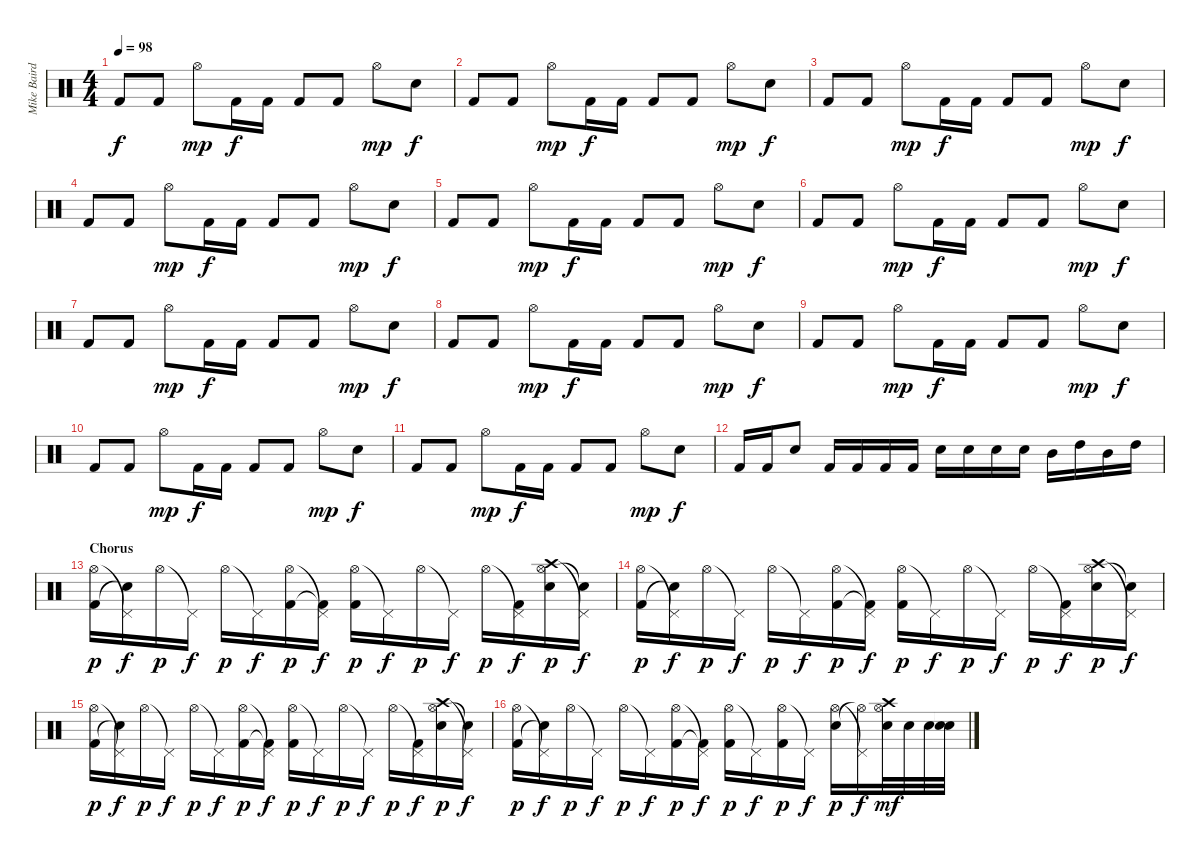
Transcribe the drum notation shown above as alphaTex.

\track ("Mike Baird [drums]" "Mike Baird") {instrument percussion}
\staff {score}
\articulation defaults
\ts (4 4)
\tempo 98
\clef neutral
\ks c "Kick (hit) 2".8{dy f} "Kick (hit) 2".8 "Hi-Hat (open)".8{dy mp} "Kick (hit) 2".16{dy f} "Kick (hit) 2".16 "Kick (hit) 2".8 "Kick (hit) 2".8 "Hi-Hat (open)".8{dy mp} "Electric Snare (hit)".8{dy f}
|
"Kick (hit) 2".8 "Kick (hit) 2".8 "Hi-Hat (open)".8{dy mp} "Kick (hit) 2".16{dy f} "Kick (hit) 2".16 "Kick (hit) 2".8 "Kick (hit) 2".8 "Hi-Hat (open)".8{dy mp} "Electric Snare (hit)".8{dy f} |
"Kick (hit) 2".8 "Kick (hit) 2".8 "Hi-Hat (open)".8{dy mp} "Kick (hit) 2".16{dy f} "Kick (hit) 2".16 "Kick (hit) 2".8 "Kick (hit) 2".8 "Hi-Hat (open)".8{dy mp} "Electric Snare (hit)".8{dy f} |
"Kick (hit) 2".8 "Kick (hit) 2".8 "Hi-Hat (open)".8{dy mp} "Kick (hit) 2".16{dy f} "Kick (hit) 2".16 "Kick (hit) 2".8 "Kick (hit) 2".8 "Hi-Hat (open)".8{dy mp} "Electric Snare (hit)".8{dy f} |
"Kick (hit) 2".8 "Kick (hit) 2".8 "Hi-Hat (open)".8{dy mp} "Kick (hit) 2".16{dy f} "Kick (hit) 2".16 "Kick (hit) 2".8 "Kick (hit) 2".8 "Hi-Hat (open)".8{dy mp} "Electric Snare (hit)".8{dy f} |
"Kick (hit) 2".8 "Kick (hit) 2".8 "Hi-Hat (open)".8{dy mp} "Kick (hit) 2".16{dy f} "Kick (hit) 2".16 "Kick (hit) 2".8 "Kick (hit) 2".8 "Hi-Hat (open)".8{dy mp} "Electric Snare (hit)".8{dy f} |
"Kick (hit) 2".8 "Kick (hit) 2".8 "Hi-Hat (open)".8{dy mp} "Kick (hit) 2".16{dy f} "Kick (hit) 2".16 "Kick (hit) 2".8 "Kick (hit) 2".8 "Hi-Hat (open)".8{dy mp} "Electric Snare (hit)".8{dy f} |
"Kick (hit) 2".8 "Kick (hit) 2".8 "Hi-Hat (open)".8{dy mp} "Kick (hit) 2".16{dy f} "Kick (hit) 2".16 "Kick (hit) 2".8 "Kick (hit) 2".8 "Hi-Hat (open)".8{dy mp} "Electric Snare (hit)".8{dy f} |
"Kick (hit) 2".8 "Kick (hit) 2".8 "Hi-Hat (open)".8{dy mp} "Kick (hit) 2".16{dy f} "Kick (hit) 2".16 "Kick (hit) 2".8 "Kick (hit) 2".8 "Hi-Hat (open)".8{dy mp} "Electric Snare (hit)".8{dy f} |
"Kick (hit) 2".8 "Kick (hit) 2".8 "Hi-Hat (open)".8{dy mp} "Kick (hit) 2".16{dy f} "Kick (hit) 2".16 "Kick (hit) 2".8 "Kick (hit) 2".8 "Hi-Hat (open)".8{dy mp} "Electric Snare (hit)".8{dy f} |
"Kick (hit) 2".8 "Kick (hit) 2".8 "Hi-Hat (open)".8{dy mp} "Kick (hit) 2".16{dy f} "Kick (hit) 2".16 "Kick (hit) 2".8 "Kick (hit) 2".8 "Hi-Hat (open)".8{dy mp} "Electric Snare (hit)".8{dy f} |
"Kick (hit) 2".16 "Kick (hit) 2".16 "Electric Snare (hit)".8 "Kick (hit) 2".16 "Kick (hit) 2".16 "Kick (hit) 2".16 "Kick (hit) 2".16 "Electric Snare (hit)".16 "Electric Snare (hit)".16 "Electric Snare (hit)".16 "Electric Snare (hit)".16 "Mid Tom (hit)".16 "High Tom (hit)".16 "Mid Tom (hit)".16 "High Tom (hit)".16 |
\section ("" "Chorus")
("Hi-Hat (open)" "Kick (hit) 2").16{dy p} ("Pedal Hi-Hat (hit)"{t} "Snare (hit)"{t}).16{dy f} "Hi-Hat (open)".16{dy p} "Pedal Hi-Hat (hit)"{t}.16{dy f} "Hi-Hat (open)".16{dy p} "Pedal Hi-Hat (hit)"{t}.16{dy f} ("Hi-Hat (open)" "Kick (hit) 2").16{dy p} ("Pedal Hi-Hat (hit)"{t} "Kick (hit) 2"{t}).16{dy f} ("Hi-Hat (open)" "Kick (hit) 2").16{dy p} "Pedal Hi-Hat (hit)"{t}.16{dy f} "Hi-Hat (open)".16{dy p} "Pedal Hi-Hat (hit)"{t}.16{dy f} "Hi-Hat (open)".16{dy p} ("Pedal Hi-Hat (hit)"{t} "Kick (hit) 2").16{dy f} ("Crash high (hit)" "Hi-Hat (open)" "Electric Snare (hit)").16{dy p} ("Pedal Hi-Hat (hit)"{t} "Snare (hit)"{t}).16{dy f} |
("Hi-Hat (open)" "Kick (hit) 2").16{dy p} ("Pedal Hi-Hat (hit)"{t} "Snare (hit)"{t}).16{dy f} "Hi-Hat (open)".16{dy p} "Pedal Hi-Hat (hit)"{t}.16{dy f} "Hi-Hat (open)".16{dy p} "Pedal Hi-Hat (hit)"{t}.16{dy f} ("Hi-Hat (open)" "Kick (hit) 2").16{dy p} ("Pedal Hi-Hat (hit)"{t} "Kick (hit) 2"{t}).16{dy f} ("Hi-Hat (open)" "Kick (hit) 2").16{dy p} "Pedal Hi-Hat (hit)"{t}.16{dy f} "Hi-Hat (open)".16{dy p} "Pedal Hi-Hat (hit)"{t}.16{dy f} "Hi-Hat (open)".16{dy p} ("Pedal Hi-Hat (hit)"{t} "Kick (hit) 2").16{dy f} ("Crash high (hit)" "Hi-Hat (open)" "Electric Snare (hit)").16{dy p} ("Pedal Hi-Hat (hit)"{t} "Snare (hit)"{t}).16{dy f} |
("Hi-Hat (open)" "Kick (hit) 2").16{dy p} ("Pedal Hi-Hat (hit)"{t} "Snare (hit)"{t}).16{dy f} "Hi-Hat (open)".16{dy p} "Pedal Hi-Hat (hit)"{t}.16{dy f} "Hi-Hat (open)".16{dy p} "Pedal Hi-Hat (hit)"{t}.16{dy f} ("Hi-Hat (open)" "Kick (hit) 2").16{dy p} ("Pedal Hi-Hat (hit)"{t} "Kick (hit) 2"{t}).16{dy f} ("Hi-Hat (open)" "Kick (hit) 2").16{dy p} "Pedal Hi-Hat (hit)"{t}.16{dy f} "Hi-Hat (open)".16{dy p} "Pedal Hi-Hat (hit)"{t}.16{dy f} "Hi-Hat (open)".16{dy p} ("Pedal Hi-Hat (hit)"{t} "Kick (hit) 2").16{dy f} ("Crash high (hit)" "Hi-Hat (open)" "Electric Snare (hit)").16{dy p} ("Pedal Hi-Hat (hit)"{t} "Snare (hit)"{t}).16{dy f} |
("Hi-Hat (open)" "Kick (hit) 2").16{dy p} ("Pedal Hi-Hat (hit)"{t} "Snare (hit)"{t}).16{dy f} "Hi-Hat (open)".16{dy p} "Pedal Hi-Hat (hit)"{t}.16{dy f} "Hi-Hat (open)".16{dy p} "Pedal Hi-Hat (hit)"{t}.16{dy f} ("Hi-Hat (open)" "Kick (hit) 2").16{dy p} ("Pedal Hi-Hat (hit)"{t} "Kick (hit) 2"{t}).16{dy f} ("Hi-Hat (open)" "Kick (hit) 2").16{dy p} "Pedal Hi-Hat (hit)"{t}.16{dy f} ("Hi-Hat (open)" "Kick (hit) 2").16{dy p} "Pedal Hi-Hat (hit)"{t}.16{dy f} ("Hi-Hat (open)" "Electric Snare (hit)").16{dy p} ("Pedal Hi-Hat (hit)"{t} "Hi-Hat (open)"{t}).16{dy f} ("Crash high (hit)" "Hi-Hat (open)" "Electric Snare (hit)").32{dy mf} "Electric Snare (hit)".32 "Electric Snare (hit)".32 ("Snare (hit)"{t} "Electric Snare (hit)").32
